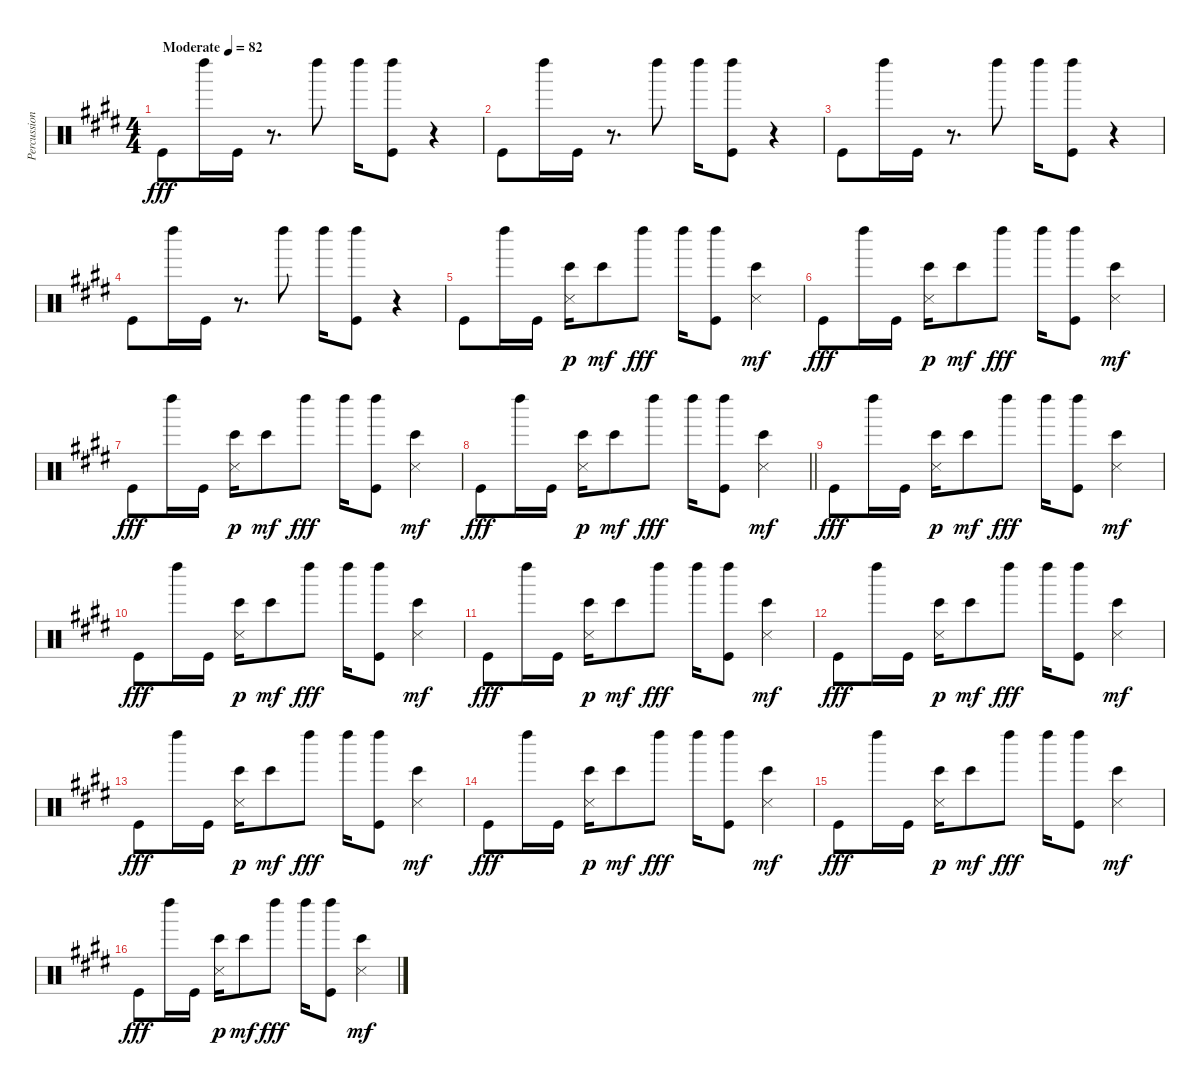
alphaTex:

\track ("Percussions" "Percussion") {instrument percussion}
\staff {score}
\articulation defaults
\ts (4 4)
\tempo (82 "Moderate")
\clef neutral
\ks e "Kick (hit)".8{dy fff} "Left Maraca (hit)".16 "Kick (hit)".16
r.8{d} "Left Maraca (hit)".8 "Left Maraca (hit)".16 ("Left Maraca (hit)" "Kick (hit)").8 r.4 |
"Kick (hit)".8 "Left Maraca (hit)".16 "Kick (hit)".16 r.8{d} "Left Maraca (hit)".8 "Left Maraca (hit)".16 ("Left Maraca (hit)" "Kick (hit)").8 r.4 |
"Kick (hit)".8 "Left Maraca (hit)".16 "Kick (hit)".16 r.8{d} "Left Maraca (hit)".8 "Left Maraca (hit)".16 ("Left Maraca (hit)" "Kick (hit)").8 r.4 |
"Kick (hit)".8 "Left Maraca (hit)".16 "Kick (hit)".16 r.8{d} "Left Maraca (hit)".8 "Left Maraca (hit)".16 ("Left Maraca (hit)" "Kick (hit)").8 r.4 |
"Kick (hit)".8 "Left Maraca (hit)".16 "Kick (hit)".16 ("Bongo High (hit)" "Metronome (hit)").16{dy p} "Bongo High (hit)".8{dy mf} "Left Maraca (hit)".8{dy fff} "Left Maraca (hit)".16 ("Left Maraca (hit)" "Kick (hit)").8 ("Bongo High (hit)" "Metronome (hit)").4{dy mf} |
"Kick (hit)".8{dy fff} "Left Maraca (hit)".16 "Kick (hit)".16 ("Bongo High (hit)" "Metronome (hit)").16{dy p} "Bongo High (hit)".8{dy mf} "Left Maraca (hit)".8{dy fff} "Left Maraca (hit)".16 ("Left Maraca (hit)" "Kick (hit)").8 ("Bongo High (hit)" "Metronome (hit)").4{dy mf} |
"Kick (hit)".8{dy fff} "Left Maraca (hit)".16 "Kick (hit)".16 ("Bongo High (hit)" "Metronome (hit)").16{dy p} "Bongo High (hit)".8{dy mf} "Left Maraca (hit)".8{dy fff} "Left Maraca (hit)".16 ("Left Maraca (hit)" "Kick (hit)").8 ("Bongo High (hit)" "Metronome (hit)").4{dy mf} |
\barLineRight lightlight "Kick (hit)".8{dy fff} "Left Maraca (hit)".16 "Kick (hit)".16
("Bongo High (hit)" "Metronome (hit)").16{dy p} "Bongo High (hit)".8{dy mf} "Left Maraca (hit)".8{dy fff} "Left Maraca (hit)".16 ("Left Maraca (hit)" "Kick (hit)").8 ("Bongo High (hit)" "Metronome (hit)").4{dy mf} |
"Kick (hit)".8{dy fff} "Left Maraca (hit)".16 "Kick (hit)".16 ("Bongo High (hit)" "Metronome (hit)").16{dy p} "Bongo High (hit)".8{dy mf} "Left Maraca (hit)".8{dy fff} "Left Maraca (hit)".16 ("Left Maraca (hit)" "Kick (hit)").8 ("Bongo High (hit)" "Metronome (hit)").4{dy mf} |
"Kick (hit)".8{dy fff} "Left Maraca (hit)".16 "Kick (hit)".16 ("Bongo High (hit)" "Metronome (hit)").16{dy p} "Bongo High (hit)".8{dy mf} "Left Maraca (hit)".8{dy fff} "Left Maraca (hit)".16 ("Left Maraca (hit)" "Kick (hit)").8 ("Bongo High (hit)" "Metronome (hit)").4{dy mf} |
"Kick (hit)".8{dy fff} "Left Maraca (hit)".16 "Kick (hit)".16 ("Bongo High (hit)" "Metronome (hit)").16{dy p} "Bongo High (hit)".8{dy mf} "Left Maraca (hit)".8{dy fff} "Left Maraca (hit)".16 ("Left Maraca (hit)" "Kick (hit)").8 ("Bongo High (hit)" "Metronome (hit)").4{dy mf} |
"Kick (hit)".8{dy fff} "Left Maraca (hit)".16 "Kick (hit)".16 ("Bongo High (hit)" "Metronome (hit)").16{dy p} "Bongo High (hit)".8{dy mf} "Left Maraca (hit)".8{dy fff} "Left Maraca (hit)".16 ("Left Maraca (hit)" "Kick (hit)").8 ("Bongo High (hit)" "Metronome (hit)").4{dy mf} |
"Kick (hit)".8{dy fff} "Left Maraca (hit)".16 "Kick (hit)".16 ("Bongo High (hit)" "Metronome (hit)").16{dy p} "Bongo High (hit)".8{dy mf} "Left Maraca (hit)".8{dy fff} "Left Maraca (hit)".16 ("Left Maraca (hit)" "Kick (hit)").8 ("Bongo High (hit)" "Metronome (hit)").4{dy mf} |
"Kick (hit)".8{dy fff} "Left Maraca (hit)".16 "Kick (hit)".16 ("Bongo High (hit)" "Metronome (hit)").16{dy p} "Bongo High (hit)".8{dy mf} "Left Maraca (hit)".8{dy fff} "Left Maraca (hit)".16 ("Left Maraca (hit)" "Kick (hit)").8 ("Bongo High (hit)" "Metronome (hit)").4{dy mf} |
"Kick (hit)".8{dy fff} "Left Maraca (hit)".16 "Kick (hit)".16 ("Bongo High (hit)" "Metronome (hit)").16{dy p} "Bongo High (hit)".8{dy mf} "Left Maraca (hit)".8{dy fff} "Left Maraca (hit)".16 ("Left Maraca (hit)" "Kick (hit)").8 ("Bongo High (hit)" "Metronome (hit)").4{dy mf} |
"Kick (hit)".8{dy fff} "Left Maraca (hit)".16 "Kick (hit)".16 ("Bongo High (hit)" "Metronome (hit)").16{dy p} "Bongo High (hit)".8{dy mf} "Left Maraca (hit)".8{dy fff} "Left Maraca (hit)".16 ("Left Maraca (hit)" "Kick (hit)").8 ("Bongo High (hit)" "Metronome (hit)").4{dy mf}
